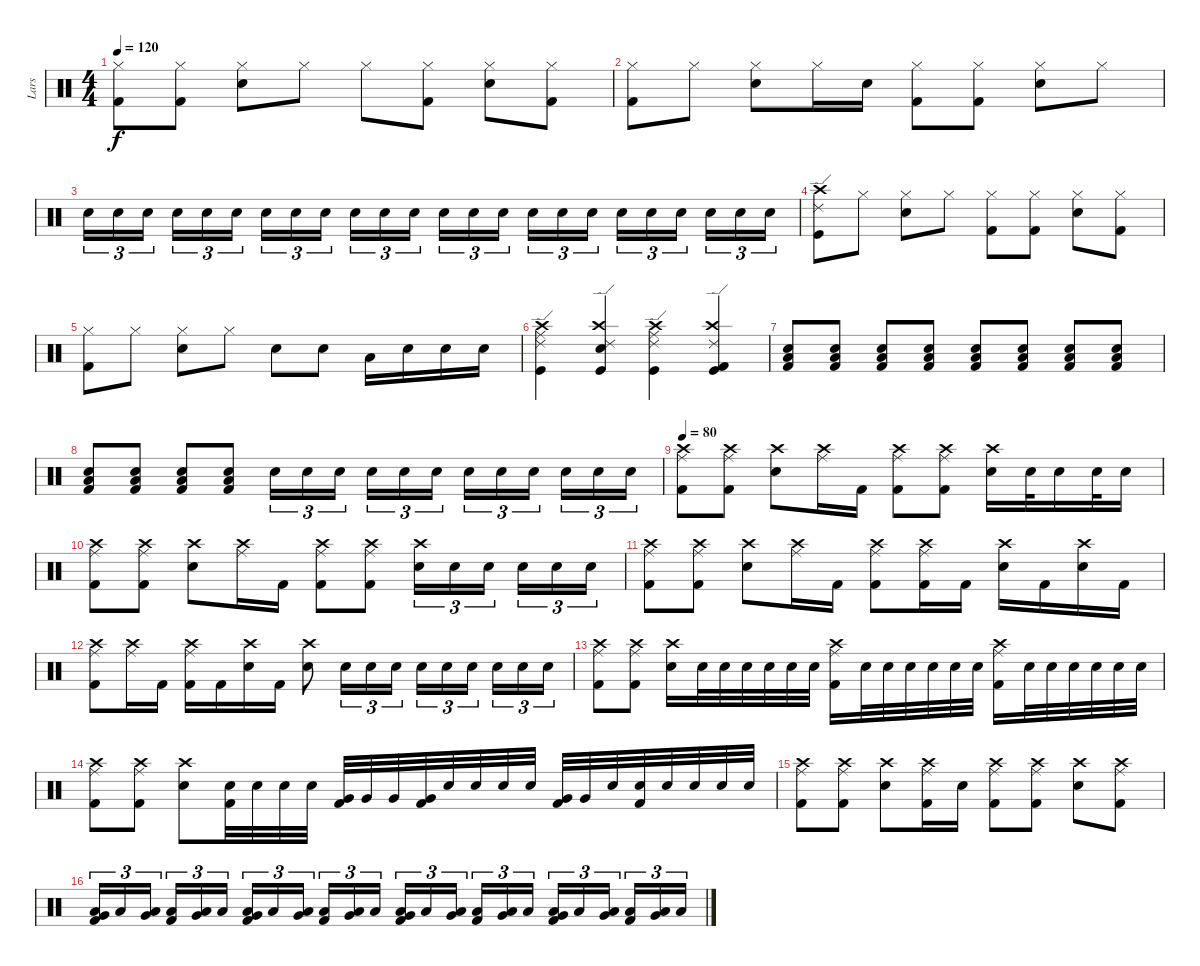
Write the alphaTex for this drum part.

\track ("Lars" "Lars") {instrument percussion}
\staff
\articulation defaults
\ts (4 4)
\tempo 120
\clef neutral
\ks c
("Kick (hit) 2" "Hi-Hat (closed)").8{dy f} ("Kick (hit) 2" "Hi-Hat (closed)").8 ("Snare (hit) 2" "Hi-Hat (closed)").8 "Hi-Hat (closed)".8 "Hi-Hat (closed)".8 ("Kick (hit) 2" "Hi-Hat (closed)").8 ("Snare (hit) 2" "Hi-Hat (closed)").8 ("Kick (hit) 2" "Hi-Hat (closed)").8 |
("Kick (hit) 2" "Hi-Hat (closed)").8 "Hi-Hat (closed)".8 ("Snare (hit) 2" "Hi-Hat (closed)").8 "Hi-Hat (closed)".16 "Snare (hit) 2".16 ("Kick (hit) 2" "Hi-Hat (closed)").8 ("Kick (hit) 2" "Hi-Hat (closed)").8 ("Snare (hit) 2" "Hi-Hat (closed)").8 "Hi-Hat (closed)".8 |
"Snare (hit) 2".16{tu (3 2)} "Snare (hit) 2".16{tu (3 2)} "Snare (hit) 2".16{tu (3 2) beam splitsecondary} "Snare (hit) 2".16{tu (3 2)} "Snare (hit) 2".16{tu (3 2)} "Snare (hit) 2".16{tu (3 2)} "Snare (hit) 2".16{tu (3 2)} "Snare (hit) 2".16{tu (3 2)} "Snare (hit) 2".16{tu (3 2) beam splitsecondary} "Snare (hit) 2".16{tu (3 2)} "Snare (hit) 2".16{tu (3 2)} "Snare (hit) 2".16{tu (3 2)} "Snare (hit) 2".16{tu (3 2)} "Snare (hit) 2".16{tu (3 2)} "Snare (hit) 2".16{tu (3 2) beam splitsecondary} "Snare (hit) 2".16{tu (3 2)} "Snare (hit) 2".16{tu (3 2)} "Snare (hit) 2".16{tu (3 2)} "Snare (hit) 2".16{tu (3 2)} "Snare (hit) 2".16{tu (3 2)} "Snare (hit) 2".16{tu (3 2) beam splitsecondary} "Snare (hit) 2".16{tu (3 2)} "Snare (hit) 2".16{tu (3 2)} "Snare (hit) 2".16{tu (3 2)} |
("Crash high (hit)" "Ride (edge) 2" "Kick (hit)").8 "Hi-Hat (closed)".8 ("Snare (hit) 2" "Hi-Hat (closed)").8 "Hi-Hat (closed)".8 ("Kick (hit) 2" "Hi-Hat (closed)").8 ("Kick (hit) 2" "Hi-Hat (closed)").8 ("Snare (hit) 2" "Hi-Hat (closed)").8 ("Kick (hit) 2" "Hi-Hat (closed)").8 |
("Kick (hit) 2" "Hi-Hat (closed)").8 "Hi-Hat (closed)".8 ("Snare (hit) 2" "Hi-Hat (closed)").8 "Hi-Hat (closed)".8 "Snare (hit) 2".8 "Snare (hit) 2".8 "Low Tom (hit)".16 "Snare (hit) 2".16 "Snare (hit) 2".16 "Snare (hit) 2".16 |
("Ride (middle)" "Crash high (hit)" "Ride (edge) 2" "Kick (hit)").4 ("Snare (hit) 2" "Crash high (hit)" "Ride (edge) 2" "Kick (hit)").4 ("Ride (middle)" "Crash high (hit)" "Ride (edge) 2" "Kick (hit)").4 ("Kick (hit) 2" "Crash high (hit)" "Ride (edge) 2" "Kick (hit)").4 |
("Snare (hit) 2" "Low Floor Tom (hit)" "Kick (hit) 2").8 ("Snare (hit) 2" "Low Floor Tom (hit)" "Kick (hit) 2").8 ("Snare (hit) 2" "Low Floor Tom (hit)" "Kick (hit) 2").8 ("Snare (hit) 2" "Low Floor Tom (hit)" "Kick (hit) 2").8 ("Snare (hit) 2" "Low Floor Tom (hit)" "Kick (hit) 2").8 ("Snare (hit) 2" "Low Floor Tom (hit)" "Kick (hit) 2").8 ("Snare (hit) 2" "Low Floor Tom (hit)" "Kick (hit) 2").8 ("Snare (hit) 2" "Low Floor Tom (hit)" "Kick (hit) 2").8 |
("Snare (hit) 2" "Low Floor Tom (hit)" "Kick (hit) 2").8 ("Snare (hit) 2" "Low Floor Tom (hit)" "Kick (hit) 2").8 ("Snare (hit) 2" "Low Floor Tom (hit)" "Kick (hit) 2").8 ("Snare (hit) 2" "Low Floor Tom (hit)" "Kick (hit) 2").8 "Snare (hit) 2".16{tu (3 2)} "Snare (hit) 2".16{tu (3 2)} "Snare (hit) 2".16{tu (3 2) beam splitsecondary} "Snare (hit) 2".16{tu (3 2)} "Snare (hit) 2".16{tu (3 2)} "Snare (hit) 2".16{tu (3 2)} "Snare (hit) 2".16{tu (3 2)} "Snare (hit) 2".16{tu (3 2)} "Snare (hit) 2".16{tu (3 2) beam splitsecondary} "Snare (hit) 2".16{tu (3 2)} "Snare (hit) 2".16{tu (3 2)} "Snare (hit) 2".16{tu (3 2)} |
\tempo 80
("Ride (middle)" "Kick (hit) 2" "Crash high (hit)").8 ("Ride (middle)" "Kick (hit) 2" "Crash high (hit)").8 ("Snare (hit) 2" "Crash high (hit)").8 ("Ride (middle)" "Crash high (hit)").16 "Kick (hit) 2".16 ("Ride (middle)" "Kick (hit) 2" "Crash high (hit)").8 ("Ride (middle)" "Kick (hit) 2" "Crash high (hit)").8 ("Snare (hit) 2" "Crash high (hit)").16 "Snare (hit) 2".32 "Snare (hit) 2".16 "Snare (hit) 2".32 "Snare (hit) 2".16 |
("Ride (middle)" "Kick (hit) 2" "Crash high (hit)").8 ("Ride (middle)" "Kick (hit) 2" "Crash high (hit)").8 ("Snare (hit) 2" "Crash high (hit)").8 ("Ride (middle)" "Crash high (hit)").16 "Kick (hit) 2".16 ("Ride (middle)" "Kick (hit) 2" "Crash high (hit)").8 ("Ride (middle)" "Kick (hit) 2" "Crash high (hit)").8 ("Snare (hit) 2" "Crash high (hit)").16{tu (3 2)} "Snare (hit) 2".16{tu (3 2)} "Snare (hit) 2".16{tu (3 2) beam splitsecondary} "Snare (hit) 2".16{tu (3 2)} "Snare (hit) 2".16{tu (3 2)} "Snare (hit) 2".16{tu (3 2)} |
("Ride (middle)" "Kick (hit) 2" "Crash high (hit)").8 ("Ride (middle)" "Kick (hit) 2" "Crash high (hit)").8 ("Snare (hit) 2" "Crash high (hit)").8 ("Ride (middle)" "Crash high (hit)").16 "Kick (hit) 2".16 ("Ride (middle)" "Kick (hit) 2" "Crash high (hit)").8 ("Ride (middle)" "Kick (hit) 2" "Crash high (hit)").16 "Kick (hit) 2".16 ("Snare (hit) 2" "Crash high (hit)").16 "Kick (hit) 2".16 ("Snare (hit) 2" "Crash high (hit)").16 "Kick (hit) 2".16 |
("Ride (middle)" "Kick (hit) 2" "Crash high (hit)").8 ("Ride (middle)" "Crash high (hit)").16 "Kick (hit) 2".16 ("Ride (middle)" "Kick (hit) 2" "Crash high (hit)").16 "Kick (hit) 2".16 ("Snare (hit) 2" "Crash high (hit)").16 "Kick (hit) 2".16 ("Snare (hit) 2" "Crash high (hit)").8 "Snare (hit) 2".16{tu (3 2)} "Snare (hit) 2".16{tu (3 2)} "Snare (hit) 2".16{tu (3 2)} "Snare (hit) 2".16{tu (3 2)} "Snare (hit) 2".16{tu (3 2)} "Snare (hit) 2".16{tu (3 2) beam splitsecondary} "Snare (hit) 2".16{tu (3 2)} "Snare (hit) 2".16{tu (3 2)} "Snare (hit) 2".16{tu (3 2)} |
("Ride (middle)" "Kick (hit) 2" "Crash high (hit)").8 ("Ride (middle)" "Kick (hit) 2" "Crash high (hit)").8 ("Snare (hit) 2" "Crash high (hit)").16 "Snare (hit) 2".32 "Snare (hit) 2".32 "Snare (hit) 2".32 "Snare (hit) 2".32 "Snare (hit) 2".32 "Snare (hit) 2".32 ("Ride (middle)" "Kick (hit) 2" "Crash high (hit)").16 "Snare (hit) 2".32 "Snare (hit) 2".32 "Snare (hit) 2".32 "Snare (hit) 2".32 "Snare (hit) 2".32 "Snare (hit) 2".32 ("Ride (middle)" "Kick (hit) 2" "Crash high (hit)").16 "Snare (hit) 2".32 "Snare (hit) 2".32 "Snare (hit) 2".32 "Snare (hit) 2".32 "Snare (hit) 2".32 "Snare (hit) 2".32 |
("Ride (middle)" "Kick (hit) 2" "Crash high (hit)").8 ("Ride (middle)" "Kick (hit) 2" "Crash high (hit)").8 ("Snare (hit) 2" "Crash high (hit)").8 ("Kick (hit) 2" "Snare (hit) 2").32 "Snare (hit) 2".32 "Snare (hit) 2".32 "Snare (hit) 2".32 ("Kick (hit) 2" "Very Low Tom (hit)").32 "Very Low Tom (hit)".32 "Very Low Tom (hit)".32 ("Kick (hit) 2" "Very Low Tom (hit)").32 "Snare (hit) 2".32 "Snare (hit) 2".32 "Snare (hit) 2".32 "Snare (hit) 2".32 ("Kick (hit) 2" "Very Low Tom (hit)").32 "Very Low Tom (hit)".32 "Snare (hit) 2".32 ("Kick (hit) 2" "Snare (hit) 2").32 "Snare (hit) 2".32 "Snare (hit) 2".32 "Snare (hit) 2".32 "Snare (hit) 2".32 |
("Ride (middle)" "Kick (hit) 2" "Crash high (hit)").8 ("Ride (middle)" "Kick (hit) 2" "Crash high (hit)").8 ("Snare (hit) 2" "Crash high (hit)").8 ("Ride (middle)" "Kick (hit) 2" "Crash high (hit)").16 "Snare (hit) 2".16 ("Ride (middle)" "Kick (hit) 2" "Crash high (hit)").8 ("Ride (middle)" "Kick (hit) 2" "Crash high (hit)").8 ("Snare (hit) 2" "Crash high (hit)").8 ("Ride (middle)" "Kick (hit) 2" "Crash high (hit)").8 |
("Very Low Tom (hit)" "Low Floor Tom (hit)" "Kick (hit) 2").16{tu (3 2)} "Low Floor Tom (hit)".16{tu (3 2)} ("Very Low Tom (hit)" "Low Floor Tom (hit)").16{tu (3 2) beam splitsecondary} ("Low Floor Tom (hit)" "Kick (hit) 2").16{tu (3 2)} ("Very Low Tom (hit)" "Low Floor Tom (hit)").16{tu (3 2)} "Low Floor Tom (hit)".16{tu (3 2)} ("Very Low Tom (hit)" "Low Floor Tom (hit)" "Kick (hit) 2").16{tu (3 2)} "Low Floor Tom (hit)".16{tu (3 2)} ("Very Low Tom (hit)" "Low Floor Tom (hit)").16{tu (3 2) beam splitsecondary} ("Low Floor Tom (hit)" "Kick (hit) 2").16{tu (3 2)} ("Very Low Tom (hit)" "Low Floor Tom (hit)").16{tu (3 2)} "Low Floor Tom (hit)".16{tu (3 2)} ("Very Low Tom (hit)" "Low Floor Tom (hit)" "Kick (hit) 2").16{tu (3 2)} "Low Floor Tom (hit)".16{tu (3 2)} ("Very Low Tom (hit)" "Low Floor Tom (hit)").16{tu (3 2) beam splitsecondary} ("Low Floor Tom (hit)" "Kick (hit) 2").16{tu (3 2)} ("Very Low Tom (hit)" "Low Floor Tom (hit)").16{tu (3 2)} "Low Floor Tom (hit)".16{tu (3 2)} ("Very Low Tom (hit)" "Low Floor Tom (hit)" "Kick (hit) 2").16{tu (3 2)} "Low Floor Tom (hit)".16{tu (3 2)} ("Very Low Tom (hit)" "Low Floor Tom (hit)").16{tu (3 2) beam splitsecondary} ("Low Floor Tom (hit)" "Kick (hit) 2").16{tu (3 2)} ("Very Low Tom (hit)" "Low Floor Tom (hit)").16{tu (3 2)} "Low Floor Tom (hit)".16{tu (3 2)}
